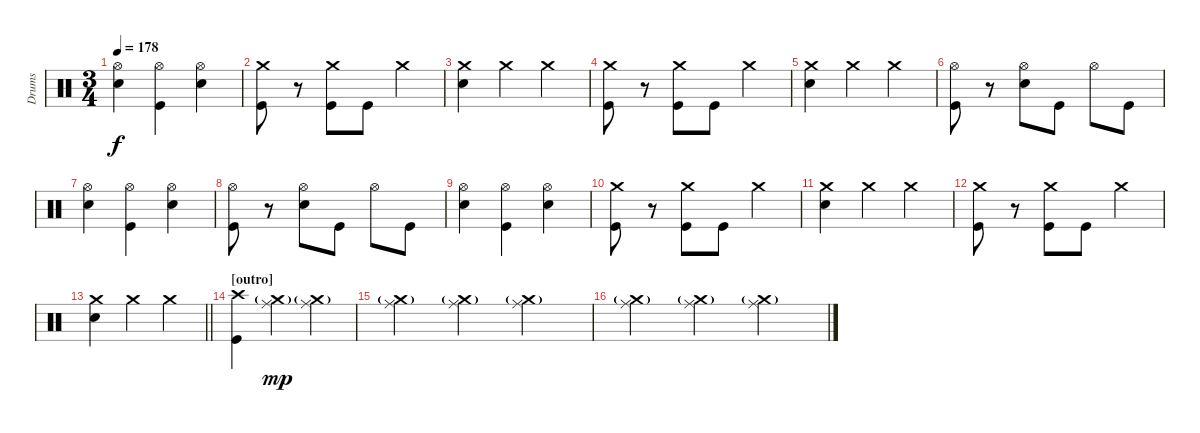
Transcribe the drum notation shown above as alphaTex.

\track ("Drums" "Drums") {instrument percussion}
\staff {score}
\articulation defaults
\ts (3 4)
\tempo 178
\clef neutral
\ks c
("Hi-Hat (open)" "Snare (hit) 2").4{dy f} ("Hi-Hat (open)" "Kick (hit)").4 ("Hi-Hat (open)" "Snare (hit) 2").4 |
("Crash medium (hit)" "Kick (hit)").8 r.8 ("Crash medium (hit)" "Kick (hit)").8 "Kick (hit)".8 "Crash medium (hit)".4 |
("Crash medium (hit)" "Snare (hit) 2").4 "Crash medium (hit)".4 "Crash medium (hit)".4 |
("Crash medium (hit)" "Kick (hit)").8 r.8 ("Crash medium (hit)" "Kick (hit)").8 "Kick (hit)".8 "Crash medium (hit)".4 |
("Crash medium (hit)" "Snare (hit) 2").4 "Crash medium (hit)".4 "Crash medium (hit)".4 |
("Hi-Hat (open)" "Kick (hit)").8 r.8 ("Hi-Hat (open)" "Snare (hit) 2").8 "Kick (hit)".8 "Hi-Hat (open)".8 "Kick (hit)".8 |
("Hi-Hat (open)" "Snare (hit) 2").4 ("Hi-Hat (open)" "Kick (hit)").4 ("Hi-Hat (open)" "Snare (hit) 2").4 |
("Hi-Hat (open)" "Kick (hit)").8 r.8 ("Hi-Hat (open)" "Snare (hit) 2").8 "Kick (hit)".8 "Hi-Hat (open)".8 "Kick (hit)".8 |
("Hi-Hat (open)" "Snare (hit) 2").4 ("Hi-Hat (open)" "Kick (hit)").4 ("Hi-Hat (open)" "Snare (hit) 2").4 |
("Crash medium (hit)" "Kick (hit)").8 r.8 ("Crash medium (hit)" "Kick (hit)").8 "Kick (hit)".8 "Crash medium (hit)".4 |
("Crash medium (hit)" "Snare (hit) 2").4 "Crash medium (hit)".4 "Crash medium (hit)".4 |
("Crash medium (hit)" "Kick (hit)").8 r.8 ("Crash medium (hit)" "Kick (hit)").8 "Kick (hit)".8 "Crash medium (hit)".4 |
\barLineRight lightlight
("Crash medium (hit)" "Snare (hit) 2").4 "Crash medium (hit)".4 "Crash medium (hit)".4 |
\section ("" "[outro]")
("Kick (hit)" "Crash high (hit)").4 ("Ride (middle)" "Crash medium (hit)"{g}).4{dy mp} ("Ride (middle)" "Crash medium (hit)"{g}).4 |
("Ride (middle)" "Crash medium (hit)"{g}).4 ("Ride (middle)" "Crash medium (hit)"{g}).4 ("Ride (middle)" "Crash medium (hit)"{g}).4 |
("Ride (middle)" "Crash medium (hit)"{g}).4 ("Ride (middle)" "Crash medium (hit)"{g}).4 ("Ride (middle)" "Crash medium (hit)"{g}).4
